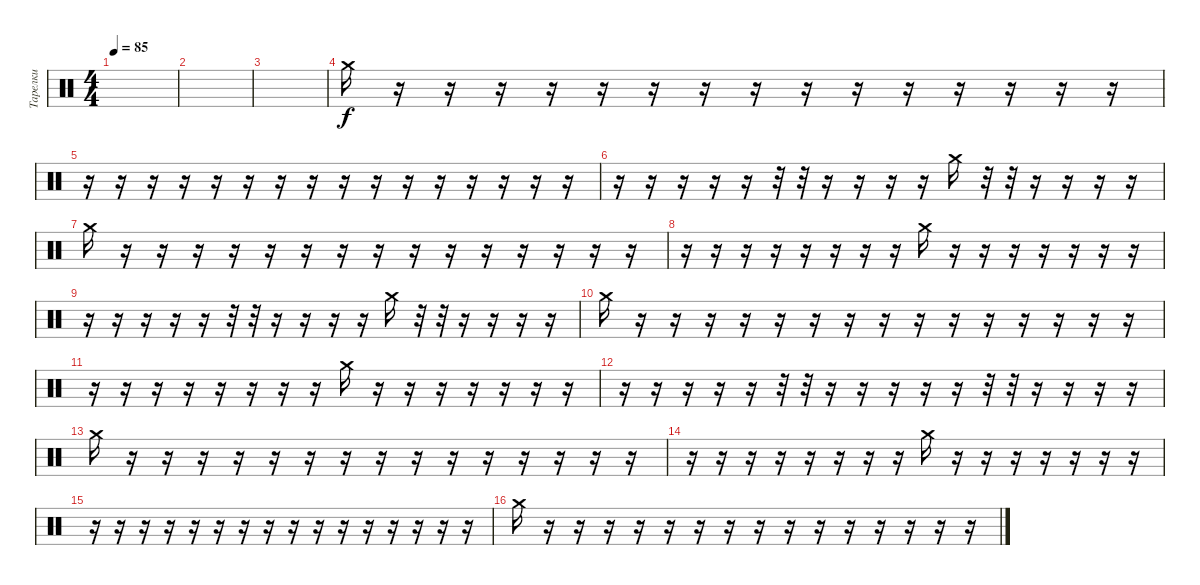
\track ("Тарелки" "Тарелки") {instrument percussion}
\staff {score}
\articulation defaults
\ts (4 4)
\tempo 85
\clef neutral
\ks c
|
|
|
"Crash medium (hit)".16 r.16 r.16 r.16 r.16 r.16 r.16 r.16 r.16 r.16 r.16 r.16 r.16 r.16 r.16 r.16 |
r.16 r.16 r.16 r.16 r.16 r.16 r.16 r.16 r.16 r.16 r.16 r.16 r.16 r.16 r.16 r.16 |
r.16 r.16 r.16 r.16 r.16 r.32 r.32 r.16 r.16 r.16 r.16 "Crash medium (hit)".16 r.32 r.32 r.16 r.16 r.16 r.16 |
"Crash medium (hit)".16 r.16 r.16 r.16 r.16 r.16 r.16 r.16 r.16 r.16 r.16 r.16 r.16 r.16 r.16 r.16 |
r.16 r.16 r.16 r.16 r.16 r.16 r.16 r.16 "Crash medium (hit)".16 r.16 r.16 r.16 r.16 r.16 r.16 r.16 |
r.16 r.16 r.16 r.16 r.16 r.32 r.32 r.16 r.16 r.16 r.16 "Crash medium (hit)".16 r.32 r.32 r.16 r.16 r.16 r.16 |
"Crash medium (hit)".16 r.16 r.16 r.16 r.16 r.16 r.16 r.16 r.16 r.16 r.16 r.16 r.16 r.16 r.16 r.16 |
r.16 r.16 r.16 r.16 r.16 r.16 r.16 r.16 "Crash medium (hit)".16 r.16 r.16 r.16 r.16 r.16 r.16 r.16 |
r.16 r.16 r.16 r.16 r.16 r.32 r.32 r.16 r.16 r.16 r.16 r.16 r.32 r.32 r.16 r.16 r.16 r.16 |
"Crash medium (hit)".16 r.16 r.16 r.16 r.16 r.16 r.16 r.16 r.16 r.16 r.16 r.16 r.16 r.16 r.16 r.16 |
r.16 r.16 r.16 r.16 r.16 r.16 r.16 r.16 "Crash medium (hit)".16 r.16 r.16 r.16 r.16 r.16 r.16 r.16 |
r.16 r.16 r.16 r.16{volume 9} r.16{volume 16} r.16 r.16 r.16 r.16 r.16 r.16 r.16 r.16 r.16 r.16 r.16{volume 16} |
"Crash medium (hit)".16 r.16 r.16 r.16 r.16 r.16 r.16 r.16 r.16 r.16 r.16 r.16 r.16 r.16 r.16 r.16
